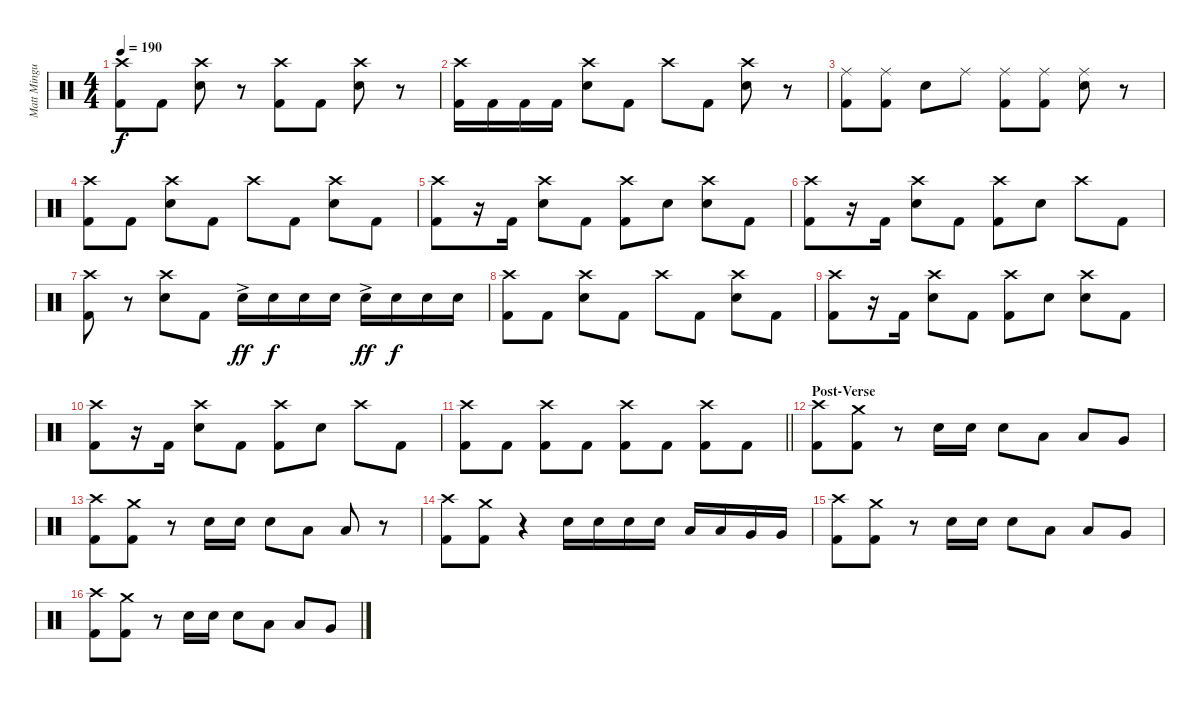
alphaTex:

\track ("Matt Mingus (Drums)" "Matt Mingu") {instrument percussion}
\staff {score}
\articulation defaults
\ts (4 4)
\tempo 190
\clef neutral
\ks c
("Crash high (hit)" "Kick (hit) 2").8{dy f} "Kick (hit) 2".8 ("Crash high (hit)" "Electric Snare (hit)").8 r.8 ("Crash high (hit)" "Kick (hit) 2").8 "Kick (hit) 2".8 ("Crash high (hit)" "Electric Snare (hit)").8 r.8 |
("Crash high (hit)" "Kick (hit) 2").16 "Kick (hit) 2".16 "Kick (hit) 2".16 "Kick (hit) 2".16 ("Crash high (hit)" "Electric Snare (hit)").8 "Kick (hit) 2".8 "Crash high (hit)".8 "Kick (hit) 2".8 ("Crash high (hit)" "Electric Snare (hit)").8 r.8 |
("Ride (middle)" "Kick (hit) 2").8 ("Ride (middle)" "Kick (hit) 2").8 "Electric Snare (hit)".8 "Ride (middle)".8 ("Ride (middle)" "Kick (hit) 2").8 ("Ride (middle)" "Kick (hit) 2").8 ("Ride (middle)" "Electric Snare (hit)").8 r.8 |
("Crash high (hit)" "Kick (hit) 2").8 "Kick (hit) 2".8 ("Crash high (hit)" "Electric Snare (hit)").8 "Kick (hit) 2".8 "Crash high (hit)".8 "Kick (hit) 2".8 ("Crash high (hit)" "Electric Snare (hit)").8 "Kick (hit) 2".8 |
("Crash high (hit)" "Kick (hit) 2").8 r.16 "Kick (hit) 2".16 ("Crash high (hit)" "Electric Snare (hit)").8 "Kick (hit) 2".8 ("Crash high (hit)" "Kick (hit) 2").8 "Electric Snare (hit)".8 ("Crash high (hit)" "Electric Snare (hit)").8 "Kick (hit) 2".8 |
("Crash high (hit)" "Kick (hit) 2").8 r.16 "Kick (hit) 2".16 ("Crash high (hit)" "Electric Snare (hit)").8 "Kick (hit) 2".8 ("Crash high (hit)" "Kick (hit) 2").8 "Electric Snare (hit)".8 "Crash high (hit)".8 "Kick (hit) 2".8 |
("Crash high (hit)" "Kick (hit) 2").8 r.8 ("Crash high (hit)" "Electric Snare (hit)").8 "Kick (hit) 2".8 "Electric Snare (hit)"{ac}.16{dy ff} "Electric Snare (hit)".16{dy f} "Electric Snare (hit)".16 "Electric Snare (hit)".16 "Electric Snare (hit)"{ac}.16{dy ff} "Electric Snare (hit)".16{dy f} "Electric Snare (hit)".16 "Electric Snare (hit)".16 |
("Crash high (hit)" "Kick (hit) 2").8 "Kick (hit) 2".8 ("Crash high (hit)" "Electric Snare (hit)").8 "Kick (hit) 2".8 "Crash high (hit)".8 "Kick (hit) 2".8 ("Crash high (hit)" "Electric Snare (hit)").8 "Kick (hit) 2".8 |
("Crash high (hit)" "Kick (hit) 2").8 r.16 "Kick (hit) 2".16 ("Crash high (hit)" "Electric Snare (hit)").8 "Kick (hit) 2".8 ("Crash high (hit)" "Kick (hit) 2").8 "Electric Snare (hit)".8 ("Crash high (hit)" "Electric Snare (hit)").8 "Kick (hit) 2".8 |
("Crash high (hit)" "Kick (hit) 2").8 r.16 "Kick (hit) 2".16 ("Crash high (hit)" "Electric Snare (hit)").8 "Kick (hit) 2".8 ("Crash high (hit)" "Kick (hit) 2").8 "Electric Snare (hit)".8 "Crash high (hit)".8 "Kick (hit) 2".8 |
\barLineRight lightlight
("Crash high (hit)" "Kick (hit) 2").8 "Kick (hit) 2".8 ("Crash high (hit)" "Kick (hit) 2").8 "Kick (hit) 2".8 ("Crash high (hit)" "Kick (hit) 2").8 "Kick (hit) 2".8 ("Crash high (hit)" "Kick (hit) 2").8 "Kick (hit) 2".8 |
\section ("" "Post-Verse")
("Crash high (hit)" "Kick (hit) 2").8 ("Crash medium (hit)" "Kick (hit) 2").8 r.8 "Electric Snare (hit)".16 "Electric Snare (hit)".16 "Electric Snare (hit)".8 "Low Tom (hit)".8 "Low Tom (hit)".8 "Very Low Tom (hit)".8 |
("Crash high (hit)" "Kick (hit) 2").8 ("Crash medium (hit)" "Kick (hit) 2").8 r.8 "Electric Snare (hit)".16 "Electric Snare (hit)".16 "Electric Snare (hit)".8 "Low Tom (hit)".8 "Low Tom (hit)".8 r.8 |
("Crash high (hit)" "Kick (hit) 2").8 ("Crash medium (hit)" "Kick (hit) 2").8 r.4 "Electric Snare (hit)".16 "Electric Snare (hit)".16 "Electric Snare (hit)".16 "Electric Snare (hit)".16 "Low Tom (hit)".16 "Low Tom (hit)".16 "Very Low Tom (hit)".16 "Very Low Tom (hit)".16 |
("Crash high (hit)" "Kick (hit) 2").8 ("Crash medium (hit)" "Kick (hit) 2").8 r.8 "Electric Snare (hit)".16 "Electric Snare (hit)".16 "Electric Snare (hit)".8 "Low Tom (hit)".8 "Low Tom (hit)".8 "Very Low Tom (hit)".8 |
("Crash high (hit)" "Kick (hit) 2").8 ("Crash medium (hit)" "Kick (hit) 2").8 r.8 "Electric Snare (hit)".16 "Electric Snare (hit)".16 "Electric Snare (hit)".8 "Low Tom (hit)".8 "Low Tom (hit)".8 "Very Low Tom (hit)".8
